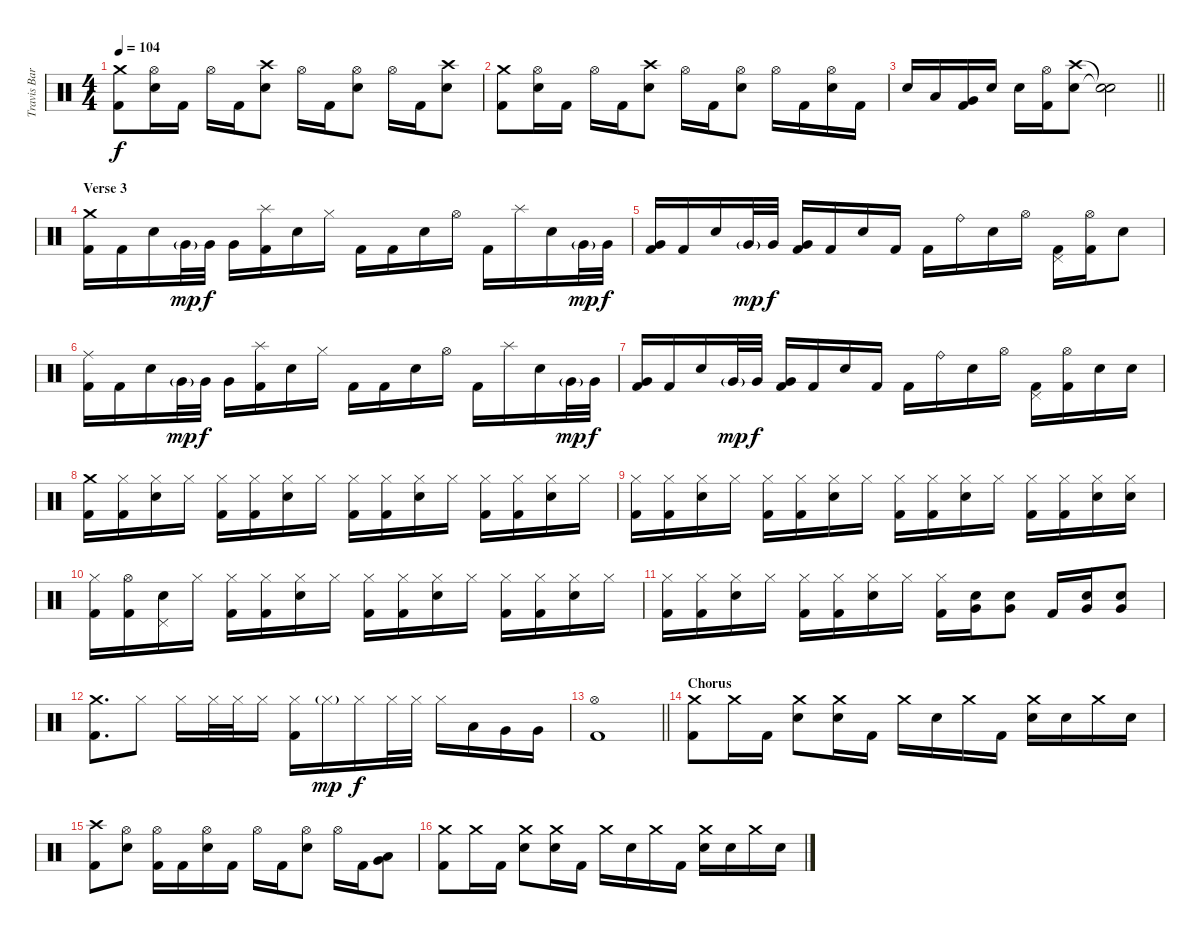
\track ("Travis Barker - Drums" "Travis Bar") {instrument percussion}
\staff {score}
\articulation defaults
\ts (4 4)
\tempo 104
\clef neutral
\ks c
("Crash medium (hit)" "Kick (hit) 2").8{dy f} ("Hi-Hat (open)" "Electric Snare (hit)").16 "Kick (hit) 2".16 "Hi-Hat (open)".16 "Kick (hit) 2".16 ("Crash high (hit)" "Electric Snare (hit)").8 "Hi-Hat (open)".16 "Kick (hit) 2".16 ("Hi-Hat (open)" "Electric Snare (hit)").8 "Hi-Hat (open)".16 "Kick (hit) 2".16 ("Crash high (hit)" "Electric Snare (hit)").8 |
("Crash medium (hit)" "Kick (hit) 2").8 ("Hi-Hat (open)" "Electric Snare (hit)").16 "Kick (hit) 2".16 "Hi-Hat (open)".16 "Kick (hit) 2".16 ("Crash high (hit)" "Electric Snare (hit)").8 "Hi-Hat (open)".16 "Kick (hit) 2".16 ("Hi-Hat (open)" "Electric Snare (hit)").8 "Hi-Hat (open)".16 "Kick (hit) 2".16 ("Hi-Hat (open)" "Electric Snare (hit)").16 "Kick (hit) 2".16 |
\barLineRight lightlight "Electric Snare (hit)".16 "Low Tom (hit)".16
("Very Low Tom (hit)" "Kick (hit) 2").16 "Electric Snare (hit)".16 "Electric Snare (hit)".16 ("Hi-Hat (open)" "Kick (hit) 2").16 ("Crash high (hit)" "Electric Snare (hit)").8 ("Snare (hit)"{t} "Snare (hit)"{t}).2 |
\section ("" "Verse 3")
("Crash medium (hit)" "Kick (hit) 2").16 "Kick (hit) 2".16 "Electric Snare (hit)".16 "Very Low Tom (hit)"{g}.32{dy mp} "Very Low Tom (hit)".32{dy f} "Very Low Tom (hit)".16 ("Splash (hit)" "Kick (hit) 2").16 "Electric Snare (hit)".16 "Hi-Hat (closed)".16 "Kick (hit) 2".16 "Kick (hit) 2".16 "Electric Snare (hit)".16 "Hi-Hat (open)".16 "Kick (hit) 2".16 "Splash (hit)".16 "Electric Snare (hit)".16 "Very Low Tom (hit)"{g}.32{dy mp} "Very Low Tom (hit)".32{dy f} |
("Very Low Tom (hit)" "Kick (hit) 2").16 "Kick (hit) 2".16 "Electric Snare (hit)".16 "Very Low Tom (hit)"{g}.32{dy mp} "Very Low Tom (hit)".32{dy f} ("Very Low Tom (hit)" "Kick (hit) 2").16 "Kick (hit) 2".16 "Electric Snare (hit)".16 "Kick (hit) 2".16 "Kick (hit) 2".16 "Ride (bell)".16 "Electric Snare (hit)".16 "Hi-Hat (open)".16 ("Pedal Hi-Hat (hit)" "Kick (hit) 2").16 ("Hi-Hat (open)" "Kick (hit) 2").16 "Electric Snare (hit)".8 |
("Ride (middle)" "Kick (hit) 2").16 "Kick (hit) 2".16 "Electric Snare (hit)".16 "Very Low Tom (hit)"{g}.32{dy mp} "Very Low Tom (hit)".32{dy f} "Very Low Tom (hit)".16 ("Splash (hit)" "Kick (hit) 2").16 "Electric Snare (hit)".16 "Hi-Hat (closed)".16 "Kick (hit) 2".16 "Kick (hit) 2".16 "Electric Snare (hit)".16 "Hi-Hat (open)".16 "Kick (hit) 2".16 "Splash (hit)".16 "Electric Snare (hit)".16 "Very Low Tom (hit)"{g}.32{dy mp} "Very Low Tom (hit)".32{dy f} |
("Very Low Tom (hit)" "Kick (hit) 2").16 "Kick (hit) 2".16 "Electric Snare (hit)".16 "Very Low Tom (hit)"{g}.32{dy mp} "Very Low Tom (hit)".32{dy f} ("Very Low Tom (hit)" "Kick (hit) 2").16 "Kick (hit) 2".16 "Electric Snare (hit)".16 "Kick (hit) 2".16 "Kick (hit) 2".16 "Ride (bell)".16 "Electric Snare (hit)".16 "Hi-Hat (open)".16 ("Pedal Hi-Hat (hit)" "Kick (hit) 2").16 ("Hi-Hat (open)" "Kick (hit) 2").16 "Electric Snare (hit)".16 "Electric Snare (hit)".16 |
("Crash medium (hit)" "Kick (hit) 2").16 ("Hi-Hat (closed)" "Kick (hit) 2").16 ("Hi-Hat (closed)" "Electric Snare (hit)").16 "Hi-Hat (closed)".16 ("Hi-Hat (closed)" "Kick (hit) 2").16 ("Hi-Hat (closed)" "Kick (hit) 2").16 ("Hi-Hat (closed)" "Electric Snare (hit)").16 "Hi-Hat (closed)".16 ("Hi-Hat (closed)" "Kick (hit) 2").16 ("Hi-Hat (closed)" "Kick (hit) 2").16 ("Hi-Hat (closed)" "Electric Snare (hit)").16 "Hi-Hat (closed)".16 ("Hi-Hat (closed)" "Kick (hit) 2").16 ("Hi-Hat (closed)" "Kick (hit) 2").16 ("Hi-Hat (closed)" "Electric Snare (hit)").16 "Hi-Hat (closed)".16 |
("Hi-Hat (closed)" "Kick (hit) 2").16 ("Hi-Hat (closed)" "Kick (hit) 2").16 ("Hi-Hat (closed)" "Electric Snare (hit)").16 "Hi-Hat (closed)".16 ("Hi-Hat (closed)" "Kick (hit) 2").16 ("Hi-Hat (closed)" "Kick (hit) 2").16 ("Hi-Hat (closed)" "Electric Snare (hit)").16 "Hi-Hat (closed)".16 ("Hi-Hat (closed)" "Kick (hit) 2").16 ("Hi-Hat (closed)" "Kick (hit) 2").16 ("Hi-Hat (closed)" "Electric Snare (hit)").16 "Hi-Hat (closed)".16 ("Hi-Hat (closed)" "Kick (hit) 2").16 ("Hi-Hat (closed)" "Kick (hit) 2").16 ("Hi-Hat (closed)" "Electric Snare (hit)").16 ("Hi-Hat (closed)" "Electric Snare (hit)").16 |
("Hi-Hat (closed)" "Kick (hit) 2").16 ("Hi-Hat (open)" "Kick (hit) 2").16 ("Pedal Hi-Hat (hit)" "Electric Snare (hit)").16 "Hi-Hat (closed)".16 ("Hi-Hat (closed)" "Kick (hit) 2").16 ("Hi-Hat (closed)" "Kick (hit) 2").16 ("Hi-Hat (closed)" "Electric Snare (hit)").16 "Hi-Hat (closed)".16 ("Hi-Hat (closed)" "Kick (hit) 2").16 ("Hi-Hat (closed)" "Kick (hit) 2").16 ("Hi-Hat (closed)" "Electric Snare (hit)").16 "Hi-Hat (closed)".16 ("Hi-Hat (closed)" "Kick (hit) 2").16 ("Hi-Hat (closed)" "Kick (hit) 2").16 ("Hi-Hat (closed)" "Electric Snare (hit)").16 "Hi-Hat (closed)".16 |
("Hi-Hat (closed)" "Kick (hit) 2").16 ("Hi-Hat (closed)" "Kick (hit) 2").16 ("Hi-Hat (closed)" "Electric Snare (hit)").16 "Hi-Hat (closed)".16 ("Hi-Hat (closed)" "Kick (hit) 2").16 ("Hi-Hat (closed)" "Kick (hit) 2").16 ("Hi-Hat (closed)" "Electric Snare (hit)").16 "Hi-Hat (closed)".16 ("Hi-Hat (closed)" "Kick (hit) 2").16 ("Very Low Tom (hit)" "Electric Snare (hit)").16 ("Very Low Tom (hit)" "Electric Snare (hit)").8 "Kick (hit) 2".16 ("Very Low Tom (hit)" "Electric Snare (hit)").16 ("Very Low Tom (hit)" "Electric Snare (hit)").8 |
("Crash medium (hit)" "Kick (hit) 2").8{d} "Hi-Hat (closed)".8 "Hi-Hat (closed)".16 "Hi-Hat (closed)".32 "Hi-Hat (closed)".32 "Hi-Hat (closed)".16 ("Hi-Hat (closed)" "Kick (hit) 2").16 "Hi-Hat (closed)"{g}.16{dy mp} "Hi-Hat (closed)".16{dy f} "Hi-Hat (closed)".32 "Hi-Hat (closed)".32 "Hi-Hat (closed)".16 "Low Tom (hit)".16 "Very Low Tom (hit)".16 "Very Low Tom (hit)".16 |
\barLineRight lightlight
("Hi-Hat (open)" "Kick (hit) 2").1 |
\section ("" "Chorus")
("Crash medium (hit)" "Kick (hit) 2").8 "Crash medium (hit)".16 "Kick (hit) 2".16 ("Crash medium (hit)" "Electric Snare (hit)").8 ("Crash medium (hit)" "Electric Snare (hit)").16 "Kick (hit) 2".16 "Crash medium (hit)".16 "Electric Snare (hit)".16 "Crash medium (hit)".16 "Kick (hit) 2".16 ("Crash medium (hit)" "Electric Snare (hit)").16 "Electric Snare (hit)".16 "Crash medium (hit)".16 "Electric Snare (hit)".16 |
("Crash high (hit)" "Kick (hit) 2").8 ("Hi-Hat (open)" "Electric Snare (hit)").8 ("Hi-Hat (open)" "Kick (hit) 2").16 "Kick (hit) 2".16 ("Hi-Hat (open)" "Electric Snare (hit)").16 "Kick (hit) 2".16 "Hi-Hat (open)".16 "Kick (hit) 2".16 ("Hi-Hat (open)" "Electric Snare (hit)").8 "Hi-Hat (open)".16 "Kick (hit) 2".16 ("Very Low Tom (hit)" "Low Floor Tom (hit)").8 |
("Crash medium (hit)" "Kick (hit) 2").8 "Crash medium (hit)".16 "Kick (hit) 2".16 ("Crash medium (hit)" "Electric Snare (hit)").8 ("Crash medium (hit)" "Electric Snare (hit)").16 "Kick (hit) 2".16 "Crash medium (hit)".16 "Electric Snare (hit)".16 "Crash medium (hit)".16 "Kick (hit) 2".16 ("Crash medium (hit)" "Electric Snare (hit)").16 "Electric Snare (hit)".16 "Crash medium (hit)".16 "Electric Snare (hit)".16
